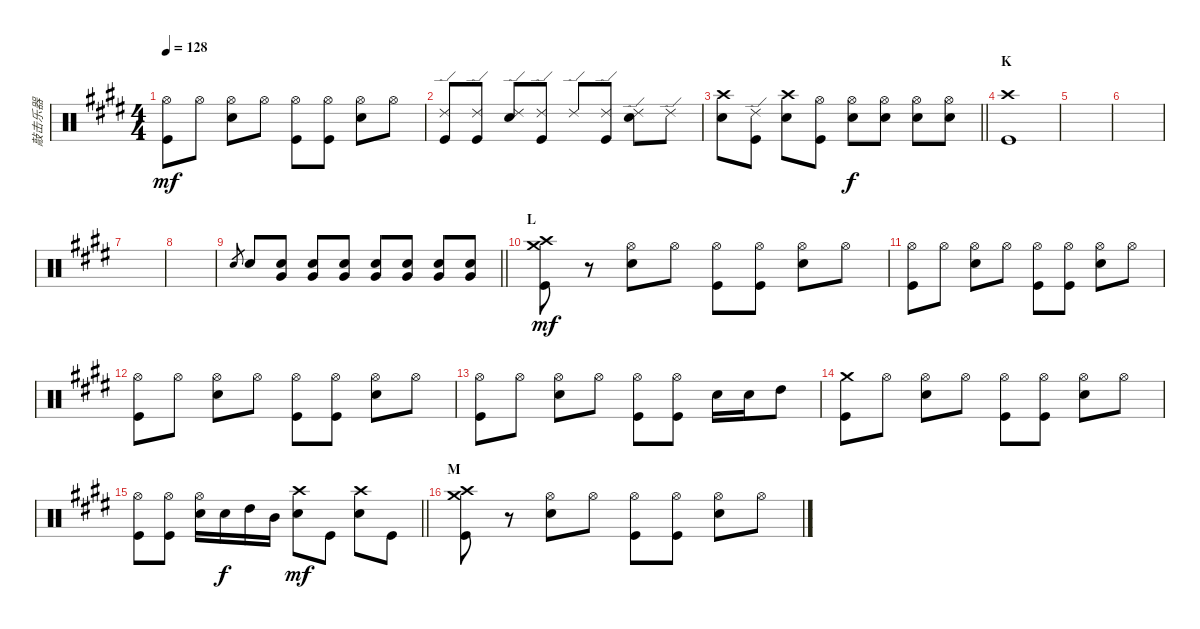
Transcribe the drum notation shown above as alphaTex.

\track ("敲击乐器" "敲击乐器") {instrument percussion}
\staff {score}
\articulation defaults
\ts (4 4)
\tempo 128
\clef neutral
\ks e
("Hi-Hat (open)" "Kick (hit)").8{dy mf} "Hi-Hat (open)".8 ("Hi-Hat (open)" "Snare (hit) 2").8 "Hi-Hat (open)".8 ("Hi-Hat (open)" "Kick (hit)").8 ("Hi-Hat (open)" "Kick (hit)").8 ("Hi-Hat (open)" "Snare (hit) 2").8 "Hi-Hat (open)".8 |
("Ride (edge) 2" "Kick (hit)").8 ("Ride (edge) 2" "Kick (hit)").8 ("Ride (edge) 2" "Snare (hit) 2").8 ("Ride (edge) 2" "Kick (hit)").8 "Ride (edge) 2".8 ("Ride (edge) 2" "Kick (hit)").8 ("Ride (edge) 2" "Snare (hit) 2").8 "Ride (edge) 2".8 |
\barLineRight lightlight
("Crash high (hit)" "Snare (hit) 2").8 ("Ride (edge) 2" "Kick (hit)").8 ("Crash high (hit)" "Snare (hit) 2").8 ("Hi-Hat (open)" "Kick (hit)").8 ("Hi-Hat (open)" "Snare (hit) 2").8{dy f} ("Hi-Hat (open)" "Snare (hit) 2").8 ("Hi-Hat (open)" "Snare (hit) 2").8 ("Hi-Hat (open)" "Snare (hit) 2").8 |
\section ("" "K")
("Crash high (hit)" "Kick (hit)").1 |
|
|
|
|
\barLineRight lightlight "Snare (hit) 2".8{gr} "Snare (hit) 2".8
("Snare (hit) 2" "Very Low Tom (hit)").8 ("Snare (hit) 2" "Very Low Tom (hit)").8 ("Snare (hit) 2" "Very Low Tom (hit)").8 ("Snare (hit) 2" "Very Low Tom (hit)").8 ("Snare (hit) 2" "Very Low Tom (hit)").8 ("Snare (hit) 2" "Very Low Tom (hit)").8 ("Snare (hit) 2" "Very Low Tom (hit)").8 |
\section ("" "L")
("Crash medium (hit)" "Crash high (hit)" "Kick (hit)").8{dy mf} r.8 ("Hi-Hat (open)" "Snare (hit) 2").8 "Hi-Hat (open)".8 ("Hi-Hat (open)" "Kick (hit)").8 ("Hi-Hat (open)" "Kick (hit)").8 ("Hi-Hat (open)" "Snare (hit) 2").8 "Hi-Hat (open)".8 |
("Hi-Hat (open)" "Kick (hit)").8 "Hi-Hat (open)".8 ("Hi-Hat (open)" "Snare (hit) 2").8 "Hi-Hat (open)".8 ("Hi-Hat (open)" "Kick (hit)").8 ("Hi-Hat (open)" "Kick (hit)").8 ("Hi-Hat (open)" "Snare (hit) 2").8 "Hi-Hat (open)".8 |
("Hi-Hat (open)" "Kick (hit)").8 "Hi-Hat (open)".8 ("Hi-Hat (open)" "Snare (hit) 2").8 "Hi-Hat (open)".8 ("Hi-Hat (open)" "Kick (hit)").8 ("Hi-Hat (open)" "Kick (hit)").8 ("Hi-Hat (open)" "Snare (hit) 2").8 "Hi-Hat (open)".8 |
("Hi-Hat (open)" "Kick (hit)").8 "Hi-Hat (open)".8 ("Hi-Hat (open)" "Snare (hit) 2").8 "Hi-Hat (open)".8 ("Hi-Hat (open)" "Kick (hit)").8 ("Hi-Hat (open)" "Kick (hit)").8 "Snare (hit) 2".16 "Snare (hit) 2".16 "High Tom (hit)".8 |
("Crash medium (hit)" "Kick (hit)").8 "Hi-Hat (open)".8 ("Hi-Hat (open)" "Snare (hit) 2").8 "Hi-Hat (open)".8 ("Hi-Hat (open)" "Kick (hit)").8 ("Hi-Hat (open)" "Kick (hit)").8 ("Hi-Hat (open)" "Snare (hit) 2").8 "Hi-Hat (open)".8 |
\barLineRight lightlight
("Hi-Hat (open)" "Kick (hit)").8 ("Hi-Hat (open)" "Kick (hit)").8 ("Hi-Hat (open)" "Snare (hit) 2").16 "Snare (hit) 2".16{dy f} "High Tom (hit)".16 "Mid Tom (hit)".16 ("Crash high (hit)" "Snare (hit) 2").8{dy mf} "Kick (hit)".8 ("Crash high (hit)" "Snare (hit) 2").8 "Kick (hit)".8 |
\section ("" "M")
("Crash medium (hit)" "Crash high (hit)" "Kick (hit)").8 r.8 ("Hi-Hat (open)" "Snare (hit) 2").8 "Hi-Hat (open)".8 ("Hi-Hat (open)" "Kick (hit)").8 ("Hi-Hat (open)" "Kick (hit)").8 ("Hi-Hat (open)" "Snare (hit) 2").8 "Hi-Hat (open)".8
